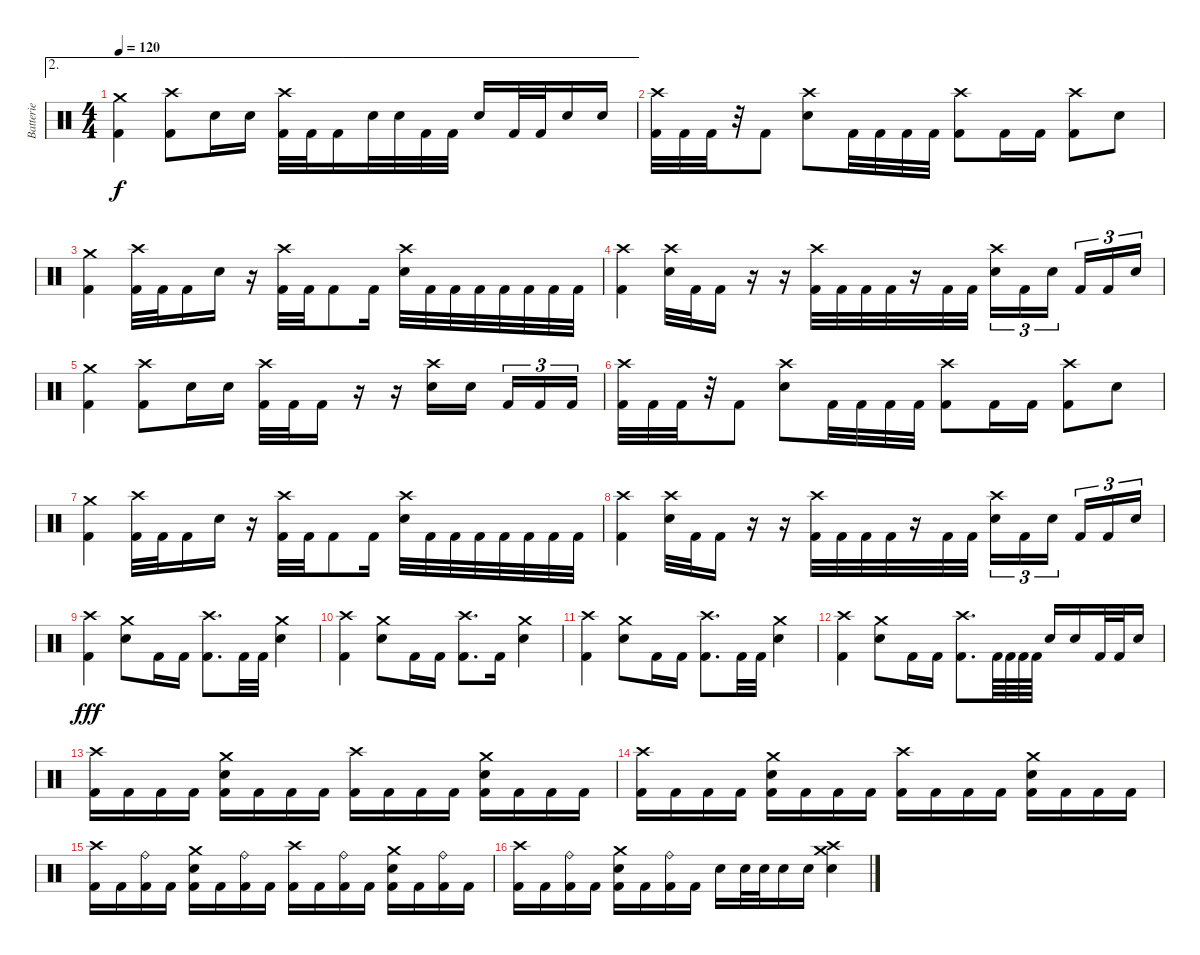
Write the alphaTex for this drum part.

\track ("Batterie" "Batterie") {instrument percussion}
\staff {score}
\articulation defaults
\ae 2
\ts (4 4)
\tempo 120
\clef neutral
\ks c
("Crash medium (hit)" "Kick (hit) 2").4{dy f} ("Crash high (hit)" "Kick (hit) 2").8 "Electric Snare (hit)".16 "Electric Snare (hit)".16 ("Crash high (hit)" "Kick (hit) 2").32 "Kick (hit) 2".32 "Kick (hit) 2".16 "Electric Snare (hit)".32 "Electric Snare (hit)".32 "Kick (hit) 2".32 "Kick (hit) 2".32 "Electric Snare (hit)".16 "Kick (hit) 2".32 "Kick (hit) 2".32 "Electric Snare (hit)".16 "Electric Snare (hit)".16 |
("Crash high (hit)" "Kick (hit) 2").32 "Kick (hit) 2".32 "Kick (hit) 2".32 r.32 "Kick (hit) 2".8 ("Crash high (hit)" "Electric Snare (hit)").8 "Kick (hit) 2".32 "Kick (hit) 2".32 "Kick (hit) 2".32 "Kick (hit) 2".32 ("Crash high (hit)" "Kick (hit) 2").8 "Kick (hit) 2".16 "Kick (hit) 2".16 ("Crash high (hit)" "Kick (hit) 2").8 "Electric Snare (hit)".8 |
("Crash medium (hit)" "Kick (hit) 2").4 ("Crash high (hit)" "Kick (hit) 2").32 "Kick (hit) 2".32 "Kick (hit) 2".16 "Electric Snare (hit)".16 r.16 ("Crash high (hit)" "Kick (hit) 2").32 "Kick (hit) 2".32 "Kick (hit) 2".8 "Kick (hit) 2".16 ("Crash high (hit)" "Electric Snare (hit)").32 "Kick (hit) 2".32 "Kick (hit) 2".32 "Kick (hit) 2".32 "Kick (hit) 2".32 "Kick (hit) 2".32 "Kick (hit) 2".32 "Kick (hit) 2".32 |
("Crash high (hit)" "Kick (hit) 2").4 ("Crash high (hit)" "Electric Snare (hit)").32 "Kick (hit) 2".32 "Kick (hit) 2".16 r.16 r.16 ("Crash high (hit)" "Kick (hit) 2").32 "Kick (hit) 2".32 "Kick (hit) 2".32 "Kick (hit) 2".32 r.16 "Kick (hit) 2".32 "Kick (hit) 2".32 ("Crash high (hit)" "Electric Snare (hit)").16{tu (3 2)} "Kick (hit) 2".16{tu (3 2)} "Electric Snare (hit)".16{tu (3 2) beam splitsecondary} "Kick (hit) 2".16{tu (3 2)} "Kick (hit) 2".16{tu (3 2)} "Electric Snare (hit)".16{tu (3 2)} |
("Crash medium (hit)" "Kick (hit) 2").4 ("Crash high (hit)" "Kick (hit) 2").8 "Electric Snare (hit)".16 "Electric Snare (hit)".16 ("Crash high (hit)" "Kick (hit) 2").32 "Kick (hit) 2".32 "Kick (hit) 2".16 r.16 r.16 ("Crash high (hit)" "Electric Snare (hit)").16 "Electric Snare (hit)".16{beam splitsecondary} "Kick (hit) 2".16{tu (3 2)} "Kick (hit) 2".16{tu (3 2)} "Kick (hit) 2".16{tu (3 2)} |
("Crash high (hit)" "Kick (hit) 2").32 "Kick (hit) 2".32 "Kick (hit) 2".32 r.32 "Kick (hit) 2".8 ("Crash high (hit)" "Electric Snare (hit)").8 "Kick (hit) 2".32 "Kick (hit) 2".32 "Kick (hit) 2".32 "Kick (hit) 2".32 ("Crash high (hit)" "Kick (hit) 2").8 "Kick (hit) 2".16 "Kick (hit) 2".16 ("Crash high (hit)" "Kick (hit) 2").8 "Electric Snare (hit)".8 |
("Crash medium (hit)" "Kick (hit) 2").4 ("Crash high (hit)" "Kick (hit) 2").32 "Kick (hit) 2".32 "Kick (hit) 2".16 "Electric Snare (hit)".16 r.16 ("Crash high (hit)" "Kick (hit) 2").32 "Kick (hit) 2".32 "Kick (hit) 2".8 "Kick (hit) 2".16 ("Crash high (hit)" "Electric Snare (hit)").32 "Kick (hit) 2".32 "Kick (hit) 2".32 "Kick (hit) 2".32 "Kick (hit) 2".32 "Kick (hit) 2".32 "Kick (hit) 2".32 "Kick (hit) 2".32 |
("Crash high (hit)" "Kick (hit) 2").4 ("Crash high (hit)" "Electric Snare (hit)").32 "Kick (hit) 2".32 "Kick (hit) 2".16 r.16 r.16 ("Crash high (hit)" "Kick (hit) 2").32 "Kick (hit) 2".32 "Kick (hit) 2".32 "Kick (hit) 2".32 r.16 "Kick (hit) 2".32 "Kick (hit) 2".32 ("Crash high (hit)" "Electric Snare (hit)").16{tu (3 2)} "Kick (hit) 2".16{tu (3 2)} "Electric Snare (hit)".16{tu (3 2) beam splitsecondary} "Kick (hit) 2".16{tu (3 2)} "Kick (hit) 2".16{tu (3 2)} "Electric Snare (hit)".16{tu (3 2)} |
("Crash high (hit)" "Kick (hit) 2").4{dy fff} ("Crash medium (hit)" "Electric Snare (hit)").8 "Kick (hit) 2".16 "Kick (hit) 2".16 ("Crash high (hit)" "Kick (hit) 2").8{d} "Kick (hit) 2".32 "Kick (hit) 2".32 ("Crash medium (hit)" "Electric Snare (hit)").4 |
("Crash high (hit)" "Kick (hit) 2").4 ("Crash medium (hit)" "Electric Snare (hit)").8 "Kick (hit) 2".16 "Kick (hit) 2".16 ("Crash high (hit)" "Kick (hit) 2").8{d} "Kick (hit) 2".16 ("Crash medium (hit)" "Electric Snare (hit)").4 |
("Crash high (hit)" "Kick (hit) 2").4 ("Crash medium (hit)" "Electric Snare (hit)").8 "Kick (hit) 2".16 "Kick (hit) 2".16 ("Crash high (hit)" "Kick (hit) 2").8{d} "Kick (hit) 2".32 "Kick (hit) 2".32 ("Crash medium (hit)" "Electric Snare (hit)").4 |
("Crash high (hit)" "Kick (hit) 2").4 ("Crash medium (hit)" "Electric Snare (hit)").8 "Kick (hit) 2".16 "Kick (hit) 2".16 ("Crash high (hit)" "Kick (hit) 2").8{d} "Kick (hit) 2".64 "Kick (hit) 2".64 "Kick (hit) 2".64 "Kick (hit) 2".64 "Electric Snare (hit)".16 "Electric Snare (hit)".16 "Kick (hit) 2".32 "Kick (hit) 2".32 "Electric Snare (hit)".16 |
("Crash high (hit)" "Kick (hit) 2").16 "Kick (hit) 2".16 "Kick (hit) 2".16 "Kick (hit) 2".16 ("Crash medium (hit)" "Electric Snare (hit)" "Kick (hit) 2").16 "Kick (hit) 2".16 "Kick (hit) 2".16 "Kick (hit) 2".16 ("Crash high (hit)" "Kick (hit) 2").16 "Kick (hit) 2".16 "Kick (hit) 2".16 "Kick (hit) 2".16 ("Crash medium (hit)" "Electric Snare (hit)" "Kick (hit) 2").16 "Kick (hit) 2".16 "Kick (hit) 2".16 "Kick (hit) 2".16 |
("Crash high (hit)" "Kick (hit) 2").16 "Kick (hit) 2".16 "Kick (hit) 2".16 "Kick (hit) 2".16 ("Crash medium (hit)" "Electric Snare (hit)" "Kick (hit) 2").16 "Kick (hit) 2".16 "Kick (hit) 2".16 "Kick (hit) 2".16 ("Crash high (hit)" "Kick (hit) 2").16 "Kick (hit) 2".16 "Kick (hit) 2".16 "Kick (hit) 2".16 ("Crash medium (hit)" "Electric Snare (hit)" "Kick (hit) 2").16 "Kick (hit) 2".16 "Kick (hit) 2".16 "Kick (hit) 2".16 |
("Crash high (hit)" "Kick (hit) 2").16 "Kick (hit) 2".16 ("Ride (bell)" "Kick (hit) 2").16 "Kick (hit) 2".16 ("Crash medium (hit)" "Electric Snare (hit)" "Kick (hit) 2").16 "Kick (hit) 2".16 ("Ride (bell)" "Kick (hit) 2").16 "Kick (hit) 2".16 ("Crash high (hit)" "Kick (hit) 2").16 "Kick (hit) 2".16 ("Ride (bell)" "Kick (hit) 2").16 "Kick (hit) 2".16 ("Crash medium (hit)" "Electric Snare (hit)" "Kick (hit) 2").16 "Kick (hit) 2".16 ("Ride (bell)" "Kick (hit) 2").16 "Kick (hit) 2".16 |
("Crash high (hit)" "Kick (hit) 2").16 "Kick (hit) 2".16 ("Ride (bell)" "Kick (hit) 2").16 "Kick (hit) 2".16 ("Crash medium (hit)" "Electric Snare (hit)" "Kick (hit) 2").16 "Kick (hit) 2".16 ("Ride (bell)" "Kick (hit) 2").16 "Kick (hit) 2".16 "Electric Snare (hit)".16 "Electric Snare (hit)".32 "Electric Snare (hit)".32 "Electric Snare (hit)".16 "Electric Snare (hit)".16 ("Crash high (hit)" "Crash medium (hit)" "Electric Snare (hit)").4
